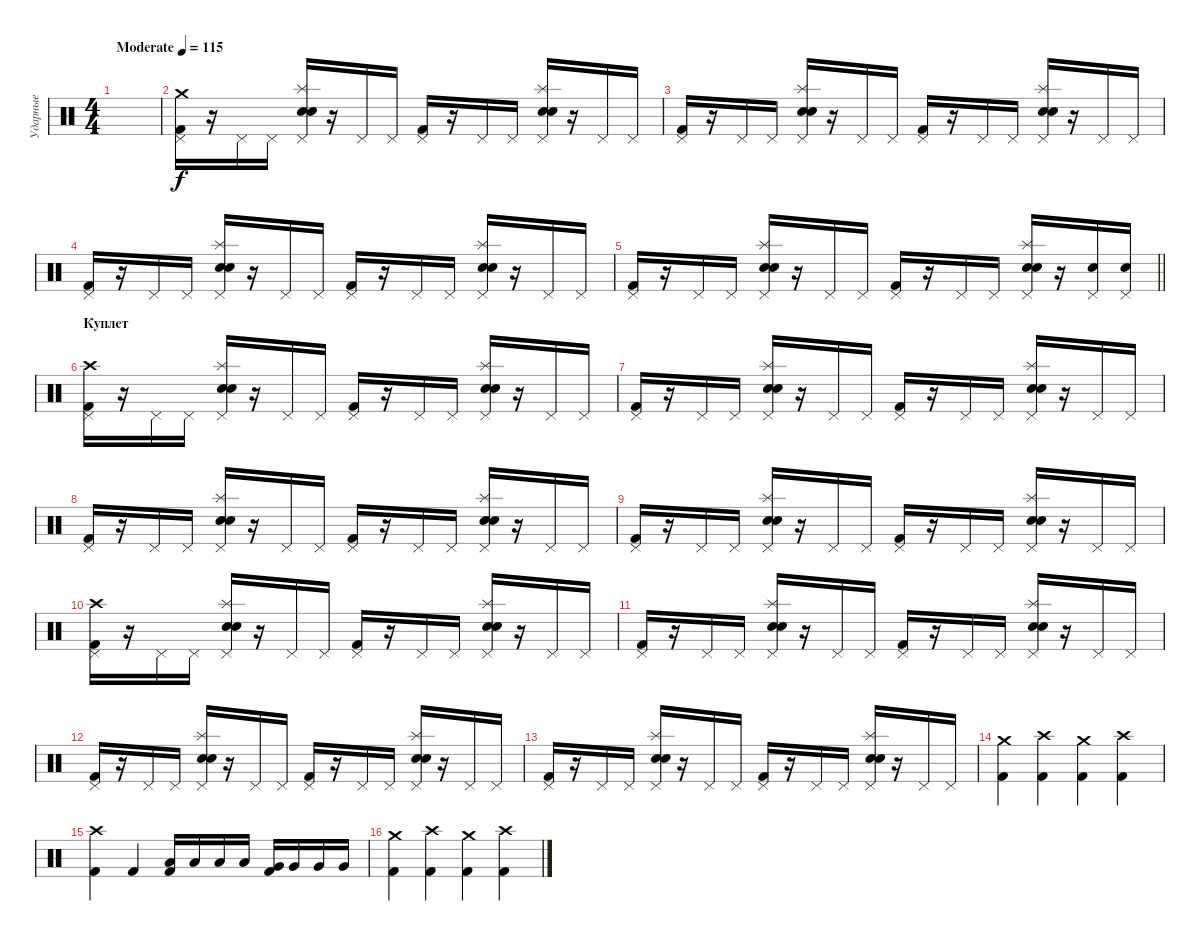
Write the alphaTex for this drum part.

\track ("Ударные" "Ударные") {instrument percussion}
\staff {score}
\articulation defaults
\ts (4 4)
\tempo (115 "Moderate")
\clef neutral
\ks c
|
("Crash medium (hit)" "Pedal Hi-Hat (hit)" "Kick (hit) 2").16 r.16 "Pedal Hi-Hat (hit)".16 "Pedal Hi-Hat (hit)".16 ("Splash (hit)" "Pedal Hi-Hat (hit)" "Electric Snare (hit)" "Snare (hit) 2").16 r.16 "Pedal Hi-Hat (hit)".16 "Pedal Hi-Hat (hit)".16 ("Pedal Hi-Hat (hit)" "Kick (hit) 2").16 r.16 "Pedal Hi-Hat (hit)".16 "Pedal Hi-Hat (hit)".16 ("Splash (hit)" "Pedal Hi-Hat (hit)" "Electric Snare (hit)" "Snare (hit) 2").16 r.16 "Pedal Hi-Hat (hit)".16 "Pedal Hi-Hat (hit)".16 |
("Pedal Hi-Hat (hit)" "Kick (hit) 2").16 r.16 "Pedal Hi-Hat (hit)".16 "Pedal Hi-Hat (hit)".16 ("Splash (hit)" "Pedal Hi-Hat (hit)" "Electric Snare (hit)" "Snare (hit) 2").16 r.16 "Pedal Hi-Hat (hit)".16 "Pedal Hi-Hat (hit)".16 ("Pedal Hi-Hat (hit)" "Kick (hit) 2").16 r.16 "Pedal Hi-Hat (hit)".16 "Pedal Hi-Hat (hit)".16 ("Splash (hit)" "Pedal Hi-Hat (hit)" "Electric Snare (hit)" "Snare (hit) 2").16 r.16 "Pedal Hi-Hat (hit)".16 "Pedal Hi-Hat (hit)".16 |
("Pedal Hi-Hat (hit)" "Kick (hit) 2").16 r.16 "Pedal Hi-Hat (hit)".16 "Pedal Hi-Hat (hit)".16 ("Splash (hit)" "Pedal Hi-Hat (hit)" "Electric Snare (hit)" "Snare (hit) 2").16 r.16 "Pedal Hi-Hat (hit)".16 "Pedal Hi-Hat (hit)".16 ("Pedal Hi-Hat (hit)" "Kick (hit) 2").16 r.16 "Pedal Hi-Hat (hit)".16 "Pedal Hi-Hat (hit)".16 ("Splash (hit)" "Pedal Hi-Hat (hit)" "Electric Snare (hit)" "Snare (hit) 2").16 r.16 "Pedal Hi-Hat (hit)".16 "Pedal Hi-Hat (hit)".16 |
\barLineRight lightlight
("Pedal Hi-Hat (hit)" "Kick (hit) 2").16 r.16 "Pedal Hi-Hat (hit)".16 "Pedal Hi-Hat (hit)".16 ("Splash (hit)" "Pedal Hi-Hat (hit)" "Electric Snare (hit)" "Snare (hit) 2").16 r.16 "Pedal Hi-Hat (hit)".16 "Pedal Hi-Hat (hit)".16 ("Pedal Hi-Hat (hit)" "Kick (hit) 2").16 r.16 "Pedal Hi-Hat (hit)".16 "Pedal Hi-Hat (hit)".16 ("Splash (hit)" "Pedal Hi-Hat (hit)" "Electric Snare (hit)" "Snare (hit) 2").16 r.16 ("Pedal Hi-Hat (hit)" "Electric Snare (hit)").16 ("Pedal Hi-Hat (hit)" "Electric Snare (hit)").16 |
\section ("" "Куплет")
("Crash high (hit)" "Pedal Hi-Hat (hit)" "Kick (hit) 2").16 r.16 "Pedal Hi-Hat (hit)".16 "Pedal Hi-Hat (hit)".16 ("Splash (hit)" "Pedal Hi-Hat (hit)" "Electric Snare (hit)" "Snare (hit) 2").16 r.16 "Pedal Hi-Hat (hit)".16 "Pedal Hi-Hat (hit)".16 ("Pedal Hi-Hat (hit)" "Kick (hit) 2").16 r.16 "Pedal Hi-Hat (hit)".16 "Pedal Hi-Hat (hit)".16 ("Splash (hit)" "Pedal Hi-Hat (hit)" "Electric Snare (hit)" "Snare (hit) 2").16 r.16 "Pedal Hi-Hat (hit)".16 "Pedal Hi-Hat (hit)".16 |
("Pedal Hi-Hat (hit)" "Kick (hit) 2").16 r.16 "Pedal Hi-Hat (hit)".16 "Pedal Hi-Hat (hit)".16 ("Splash (hit)" "Pedal Hi-Hat (hit)" "Electric Snare (hit)" "Snare (hit) 2").16 r.16 "Pedal Hi-Hat (hit)".16 "Pedal Hi-Hat (hit)".16 ("Pedal Hi-Hat (hit)" "Kick (hit) 2").16 r.16 "Pedal Hi-Hat (hit)".16 "Pedal Hi-Hat (hit)".16 ("Splash (hit)" "Pedal Hi-Hat (hit)" "Electric Snare (hit)" "Snare (hit) 2").16 r.16 "Pedal Hi-Hat (hit)".16 "Pedal Hi-Hat (hit)".16 |
("Pedal Hi-Hat (hit)" "Kick (hit) 2").16 r.16 "Pedal Hi-Hat (hit)".16 "Pedal Hi-Hat (hit)".16 ("Splash (hit)" "Pedal Hi-Hat (hit)" "Electric Snare (hit)" "Snare (hit) 2").16 r.16 "Pedal Hi-Hat (hit)".16 "Pedal Hi-Hat (hit)".16 ("Pedal Hi-Hat (hit)" "Kick (hit) 2").16 r.16 "Pedal Hi-Hat (hit)".16 "Pedal Hi-Hat (hit)".16 ("Splash (hit)" "Pedal Hi-Hat (hit)" "Electric Snare (hit)" "Snare (hit) 2").16 r.16 "Pedal Hi-Hat (hit)".16 "Pedal Hi-Hat (hit)".16 |
("Pedal Hi-Hat (hit)" "Kick (hit) 2").16 r.16 "Pedal Hi-Hat (hit)".16 "Pedal Hi-Hat (hit)".16 ("Splash (hit)" "Pedal Hi-Hat (hit)" "Electric Snare (hit)" "Snare (hit) 2").16 r.16 "Pedal Hi-Hat (hit)".16 "Pedal Hi-Hat (hit)".16 ("Pedal Hi-Hat (hit)" "Kick (hit) 2").16 r.16 "Pedal Hi-Hat (hit)".16 "Pedal Hi-Hat (hit)".16 ("Splash (hit)" "Pedal Hi-Hat (hit)" "Electric Snare (hit)" "Snare (hit) 2").16 r.16 "Pedal Hi-Hat (hit)".16 "Pedal Hi-Hat (hit)".16 |
("Crash high (hit)" "Pedal Hi-Hat (hit)" "Kick (hit) 2").16 r.16 "Pedal Hi-Hat (hit)".16 "Pedal Hi-Hat (hit)".16 ("Splash (hit)" "Pedal Hi-Hat (hit)" "Electric Snare (hit)" "Snare (hit) 2").16 r.16 "Pedal Hi-Hat (hit)".16 "Pedal Hi-Hat (hit)".16 ("Pedal Hi-Hat (hit)" "Kick (hit) 2").16 r.16 "Pedal Hi-Hat (hit)".16 "Pedal Hi-Hat (hit)".16 ("Splash (hit)" "Pedal Hi-Hat (hit)" "Electric Snare (hit)" "Snare (hit) 2").16 r.16 "Pedal Hi-Hat (hit)".16 "Pedal Hi-Hat (hit)".16 |
("Pedal Hi-Hat (hit)" "Kick (hit) 2").16 r.16 "Pedal Hi-Hat (hit)".16 "Pedal Hi-Hat (hit)".16 ("Splash (hit)" "Pedal Hi-Hat (hit)" "Electric Snare (hit)" "Snare (hit) 2").16 r.16 "Pedal Hi-Hat (hit)".16 "Pedal Hi-Hat (hit)".16 ("Pedal Hi-Hat (hit)" "Kick (hit) 2").16 r.16 "Pedal Hi-Hat (hit)".16 "Pedal Hi-Hat (hit)".16 ("Splash (hit)" "Pedal Hi-Hat (hit)" "Electric Snare (hit)" "Snare (hit) 2").16 r.16 "Pedal Hi-Hat (hit)".16 "Pedal Hi-Hat (hit)".16 |
("Pedal Hi-Hat (hit)" "Kick (hit) 2").16 r.16 "Pedal Hi-Hat (hit)".16 "Pedal Hi-Hat (hit)".16 ("Splash (hit)" "Pedal Hi-Hat (hit)" "Electric Snare (hit)" "Snare (hit) 2").16 r.16 "Pedal Hi-Hat (hit)".16 "Pedal Hi-Hat (hit)".16 ("Pedal Hi-Hat (hit)" "Kick (hit) 2").16 r.16 "Pedal Hi-Hat (hit)".16 "Pedal Hi-Hat (hit)".16 ("Splash (hit)" "Pedal Hi-Hat (hit)" "Electric Snare (hit)" "Snare (hit) 2").16 r.16 "Pedal Hi-Hat (hit)".16 "Pedal Hi-Hat (hit)".16 |
("Pedal Hi-Hat (hit)" "Kick (hit) 2").16 r.16 "Pedal Hi-Hat (hit)".16 "Pedal Hi-Hat (hit)".16 ("Splash (hit)" "Pedal Hi-Hat (hit)" "Electric Snare (hit)" "Snare (hit) 2").16 r.16 "Pedal Hi-Hat (hit)".16 "Pedal Hi-Hat (hit)".16 ("Pedal Hi-Hat (hit)" "Kick (hit) 2").16 r.16 "Pedal Hi-Hat (hit)".16 "Pedal Hi-Hat (hit)".16 ("Splash (hit)" "Pedal Hi-Hat (hit)" "Electric Snare (hit)" "Snare (hit) 2").16 r.16 "Pedal Hi-Hat (hit)".16 "Pedal Hi-Hat (hit)".16 |
("Crash medium (hit)" "Kick (hit) 2").4 ("Crash high (hit)" "Kick (hit) 2").4 ("Crash medium (hit)" "Kick (hit) 2").4 ("Crash high (hit)" "Kick (hit) 2").4 |
("Crash high (hit)" "Kick (hit) 2").4 "Kick (hit) 2".4 ("Low Tom (hit)" "Kick (hit) 2").16 "Low Tom (hit)".16 "Low Tom (hit)".16 "Low Tom (hit)".16 ("Very Low Tom (hit)" "Kick (hit) 2").16 "Very Low Tom (hit)".16 "Very Low Tom (hit)".16 "Very Low Tom (hit)".16 |
("Crash medium (hit)" "Kick (hit) 2").4 ("Crash high (hit)" "Kick (hit) 2").4 ("Crash medium (hit)" "Kick (hit) 2").4 ("Crash high (hit)" "Kick (hit) 2").4
